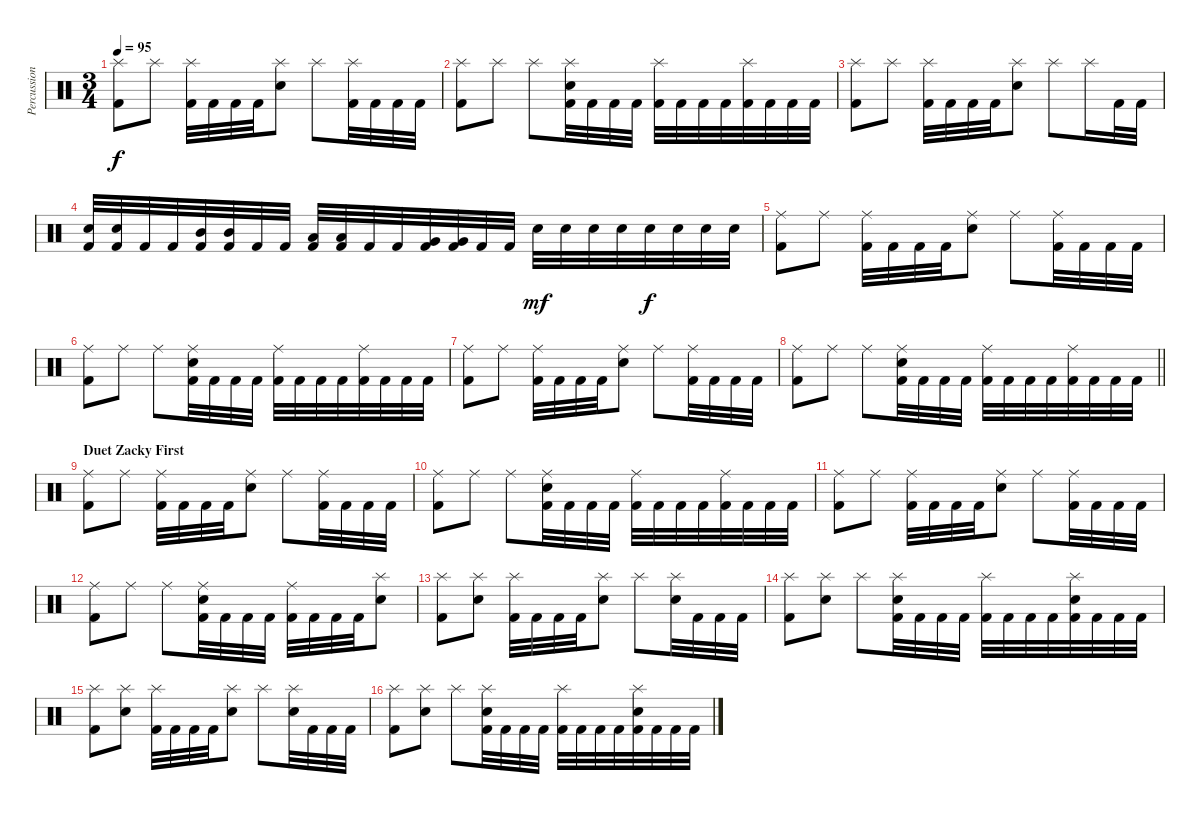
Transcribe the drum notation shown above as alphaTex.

\track ("Percussion Mike" "Percussion") {instrument percussion}
\staff {score}
\articulation defaults
\ts (3 4)
\tempo 95
\clef neutral
\ks c
("Splash (hit)" "Kick (hit) 2").8{dy f} "Splash (hit)".8 ("Splash (hit)" "Kick (hit) 2").32 "Kick (hit) 2".32 "Kick (hit) 2".32 "Kick (hit) 2".32 ("Splash (hit)" "Snare (hit) 2").8 "Splash (hit)".8 ("Splash (hit)" "Kick (hit) 2").32 "Kick (hit) 2".32 "Kick (hit) 2".32 "Kick (hit) 2".32 |
("Splash (hit)" "Kick (hit) 2").8 "Splash (hit)".8 "Splash (hit)".8 ("Splash (hit)" "Snare (hit) 2" "Kick (hit) 2").32 "Kick (hit) 2".32 "Kick (hit) 2".32 "Kick (hit) 2".32 ("Splash (hit)" "Kick (hit) 2").32 "Kick (hit) 2".32 "Kick (hit) 2".32 "Kick (hit) 2".32 ("Splash (hit)" "Kick (hit) 2").32 "Kick (hit) 2".32 "Kick (hit) 2".32 "Kick (hit) 2".32 |
("Splash (hit)" "Kick (hit) 2").8 "Splash (hit)".8 ("Splash (hit)" "Kick (hit) 2").32 "Kick (hit) 2".32 "Kick (hit) 2".32 "Kick (hit) 2".32 ("Splash (hit)" "Snare (hit) 2").8 "Splash (hit)".8 "Splash (hit)".16 "Kick (hit) 2".32 "Kick (hit) 2".32 |
("Snare (hit) 2" "Kick (hit) 2").32 ("Snare (hit) 2" "Kick (hit) 2").32 "Kick (hit) 2".32 "Kick (hit) 2".32 ("Mid Tom (hit)" "Kick (hit) 2").32 ("Mid Tom (hit)" "Kick (hit) 2").32 "Kick (hit) 2".32 "Kick (hit) 2".32 ("Low Tom (hit)" "Kick (hit) 2").32 ("Low Tom (hit)" "Kick (hit) 2").32 "Kick (hit) 2".32 "Kick (hit) 2".32 ("Very Low Tom (hit)" "Kick (hit) 2").32 ("Very Low Tom (hit)" "Kick (hit) 2").32 "Kick (hit) 2".32 "Kick (hit) 2".32 "Snare (hit) 2".32{dy mf} "Snare (hit) 2".32 "Snare (hit) 2".32 "Snare (hit) 2".32 "Snare (hit) 2".32{dy f} "Snare (hit) 2".32 "Snare (hit) 2".32 "Snare (hit) 2".32 |
("Ride (middle)" "Kick (hit) 2").8 "Ride (middle)".8 ("Ride (middle)" "Kick (hit) 2").32 "Kick (hit) 2".32 "Kick (hit) 2".32 "Kick (hit) 2".32 ("Ride (middle)" "Snare (hit) 2").8 "Ride (middle)".8 ("Ride (middle)" "Kick (hit) 2").32 "Kick (hit) 2".32 "Kick (hit) 2".32 "Kick (hit) 2".32 |
("Ride (middle)" "Kick (hit) 2").8 "Ride (middle)".8 "Ride (middle)".8 ("Ride (middle)" "Snare (hit) 2" "Kick (hit) 2").32 "Kick (hit) 2".32 "Kick (hit) 2".32 "Kick (hit) 2".32 ("Ride (middle)" "Kick (hit) 2").32 "Kick (hit) 2".32 "Kick (hit) 2".32 "Kick (hit) 2".32 ("Ride (middle)" "Kick (hit) 2").32 "Kick (hit) 2".32 "Kick (hit) 2".32 "Kick (hit) 2".32 |
("Ride (middle)" "Kick (hit) 2").8 "Ride (middle)".8 ("Ride (middle)" "Kick (hit) 2").32 "Kick (hit) 2".32 "Kick (hit) 2".32 "Kick (hit) 2".32 ("Ride (middle)" "Snare (hit) 2").8 "Ride (middle)".8 ("Ride (middle)" "Kick (hit) 2").32 "Kick (hit) 2".32 "Kick (hit) 2".32 "Kick (hit) 2".32 |
\barLineRight lightlight
("Ride (middle)" "Kick (hit) 2").8 "Ride (middle)".8 "Ride (middle)".8 ("Ride (middle)" "Snare (hit) 2" "Kick (hit) 2").32 "Kick (hit) 2".32 "Kick (hit) 2".32 "Kick (hit) 2".32 ("Ride (middle)" "Kick (hit) 2").32 "Kick (hit) 2".32 "Kick (hit) 2".32 "Kick (hit) 2".32 ("Ride (middle)" "Kick (hit) 2").32 "Kick (hit) 2".32 "Kick (hit) 2".32 "Kick (hit) 2".32 |
\section ("" "Duet Zacky First")
("Ride (middle)" "Kick (hit) 2").8 "Ride (middle)".8 ("Ride (middle)" "Kick (hit) 2").32 "Kick (hit) 2".32 "Kick (hit) 2".32 "Kick (hit) 2".32 ("Ride (middle)" "Snare (hit) 2").8 "Ride (middle)".8 ("Ride (middle)" "Kick (hit) 2").32 "Kick (hit) 2".32 "Kick (hit) 2".32 "Kick (hit) 2".32 |
("Ride (middle)" "Kick (hit) 2").8 "Ride (middle)".8 "Ride (middle)".8 ("Ride (middle)" "Snare (hit) 2" "Kick (hit) 2").32 "Kick (hit) 2".32 "Kick (hit) 2".32 "Kick (hit) 2".32 ("Ride (middle)" "Kick (hit) 2").32 "Kick (hit) 2".32 "Kick (hit) 2".32 "Kick (hit) 2".32 ("Ride (middle)" "Kick (hit) 2").32 "Kick (hit) 2".32 "Kick (hit) 2".32 "Kick (hit) 2".32 |
("Ride (middle)" "Kick (hit) 2").8 "Ride (middle)".8 ("Ride (middle)" "Kick (hit) 2").32 "Kick (hit) 2".32 "Kick (hit) 2".32 "Kick (hit) 2".32 ("Ride (middle)" "Snare (hit) 2").8 "Ride (middle)".8 ("Ride (middle)" "Kick (hit) 2").32 "Kick (hit) 2".32 "Kick (hit) 2".32 "Kick (hit) 2".32 |
("Ride (middle)" "Kick (hit) 2").8 "Ride (middle)".8 "Ride (middle)".8 ("Ride (middle)" "Snare (hit) 2" "Kick (hit) 2").32 "Kick (hit) 2".32 "Kick (hit) 2".32 "Kick (hit) 2".32 ("Ride (middle)" "Kick (hit) 2").32 "Kick (hit) 2".32 "Kick (hit) 2".32 "Kick (hit) 2".32 ("Splash (hit)" "Snare (hit) 2").8 |
("Splash (hit)" "Kick (hit) 2").8 ("Splash (hit)" "Snare (hit) 2").8 ("Splash (hit)" "Kick (hit) 2").32 "Kick (hit) 2".32 "Kick (hit) 2".32 "Kick (hit) 2".32 ("Splash (hit)" "Snare (hit) 2").8 "Splash (hit)".8 ("Splash (hit)" "Snare (hit) 2").32 "Kick (hit) 2".32 "Kick (hit) 2".32 "Kick (hit) 2".32 |
("Splash (hit)" "Kick (hit) 2").8 ("Splash (hit)" "Snare (hit) 2").8 "Splash (hit)".8 ("Splash (hit)" "Snare (hit) 2" "Kick (hit) 2").32 "Kick (hit) 2".32 "Kick (hit) 2".32 "Kick (hit) 2".32 ("Splash (hit)" "Kick (hit) 2").32 "Kick (hit) 2".32 "Kick (hit) 2".32 "Kick (hit) 2".32 ("Splash (hit)" "Snare (hit) 2" "Kick (hit) 2").32 "Kick (hit) 2".32 "Kick (hit) 2".32 "Kick (hit) 2".32 |
("Splash (hit)" "Kick (hit) 2").8 ("Splash (hit)" "Snare (hit) 2").8 ("Splash (hit)" "Kick (hit) 2").32 "Kick (hit) 2".32 "Kick (hit) 2".32 "Kick (hit) 2".32 ("Splash (hit)" "Snare (hit) 2").8 "Splash (hit)".8 ("Splash (hit)" "Snare (hit) 2").32 "Kick (hit) 2".32 "Kick (hit) 2".32 "Kick (hit) 2".32 |
("Splash (hit)" "Kick (hit) 2").8 ("Splash (hit)" "Snare (hit) 2").8 "Splash (hit)".8 ("Splash (hit)" "Snare (hit) 2" "Kick (hit) 2").32 "Kick (hit) 2".32 "Kick (hit) 2".32 "Kick (hit) 2".32 ("Splash (hit)" "Kick (hit) 2").32 "Kick (hit) 2".32 "Kick (hit) 2".32 "Kick (hit) 2".32 ("Splash (hit)" "Snare (hit) 2" "Kick (hit) 2").32 "Kick (hit) 2".32 "Kick (hit) 2".32 "Kick (hit) 2".32
